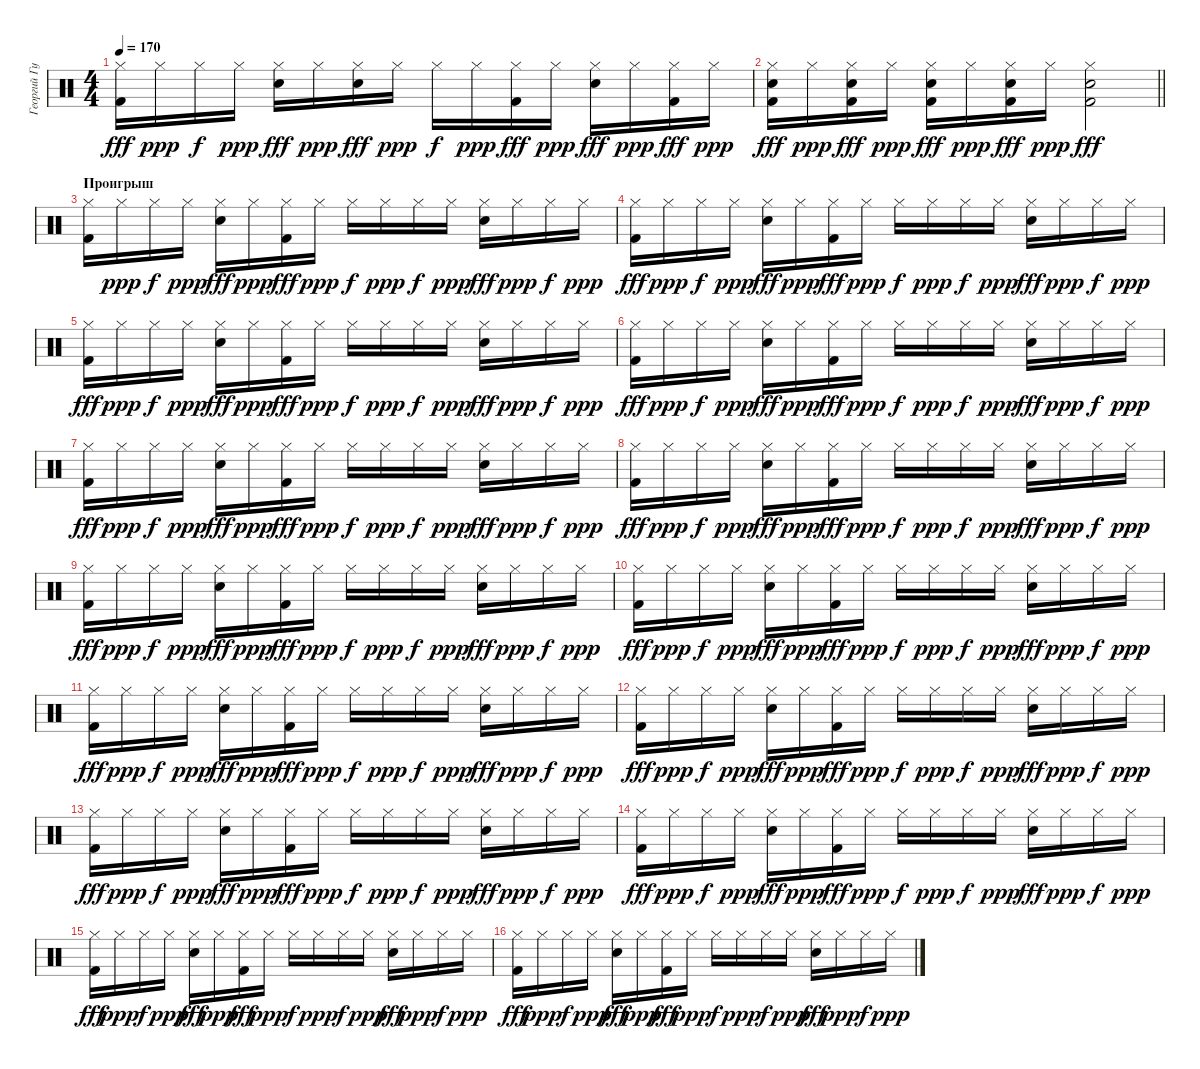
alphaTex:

\track ("Георгий Гурьянов" "Георгий Гу") {instrument percussion}
\staff {score}
\articulation defaults
\ts (4 4)
\tempo 170
\clef neutral
\ks c
("Hi-Hat (closed)" "Kick (hit) 2").16{dy fff} "Hi-Hat (closed)".16{dy ppp} "Hi-Hat (closed)".16{dy f} "Hi-Hat (closed)".16{dy ppp} ("Hi-Hat (closed)" "Electric Snare (hit)").16{dy fff} "Hi-Hat (closed)".16{dy ppp} ("Hi-Hat (closed)" "Electric Snare (hit)").16{dy fff} "Hi-Hat (closed)".16{dy ppp} "Hi-Hat (closed)".16{dy f} "Hi-Hat (closed)".16{dy ppp} ("Hi-Hat (closed)" "Kick (hit) 2").16{dy fff} "Hi-Hat (closed)".16{dy ppp} ("Hi-Hat (closed)" "Electric Snare (hit)").16{dy fff} "Hi-Hat (closed)".16{dy ppp} ("Hi-Hat (closed)" "Kick (hit) 2").16{dy fff} "Hi-Hat (closed)".16{dy ppp} |
\barLineRight lightlight
("Hi-Hat (closed)" "Electric Snare (hit)" "Kick (hit) 2").16{dy fff} "Hi-Hat (closed)".16{dy ppp} ("Hi-Hat (closed)" "Electric Snare (hit)" "Kick (hit) 2").16{dy fff} "Hi-Hat (closed)".16{dy ppp} ("Hi-Hat (closed)" "Kick (hit) 2" "Electric Snare (hit)").16{dy fff} "Hi-Hat (closed)".16{dy ppp} ("Hi-Hat (closed)" "Kick (hit) 2" "Electric Snare (hit)").16{dy fff} "Hi-Hat (closed)".16{dy ppp} ("Hi-Hat (closed)" "Electric Snare (hit)" "Kick (hit) 2").2{dy fff} |
\section ("" "Проигрыш")
("Hi-Hat (closed)" "Kick (hit) 2").16 "Hi-Hat (closed)".16{dy ppp} "Hi-Hat (closed)".16{dy f} "Hi-Hat (closed)".16{dy ppp} ("Hi-Hat (closed)" "Electric Snare (hit)").16{dy fff} "Hi-Hat (closed)".16{dy ppp} ("Hi-Hat (closed)" "Kick (hit) 2").16{dy fff} "Hi-Hat (closed)".16{dy ppp} "Hi-Hat (closed)".16{dy f} "Hi-Hat (closed)".16{dy ppp} "Hi-Hat (closed)".16{dy f} "Hi-Hat (closed)".16{dy ppp} ("Hi-Hat (closed)" "Electric Snare (hit)").16{dy fff} "Hi-Hat (closed)".16{dy ppp} "Hi-Hat (closed)".16{dy f} "Hi-Hat (closed)".16{dy ppp} |
("Hi-Hat (closed)" "Kick (hit) 2").16{dy fff} "Hi-Hat (closed)".16{dy ppp} "Hi-Hat (closed)".16{dy f} "Hi-Hat (closed)".16{dy ppp} ("Hi-Hat (closed)" "Electric Snare (hit)").16{dy fff} "Hi-Hat (closed)".16{dy ppp} ("Hi-Hat (closed)" "Kick (hit) 2").16{dy fff} "Hi-Hat (closed)".16{dy ppp} "Hi-Hat (closed)".16{dy f} "Hi-Hat (closed)".16{dy ppp} "Hi-Hat (closed)".16{dy f} "Hi-Hat (closed)".16{dy ppp} ("Hi-Hat (closed)" "Electric Snare (hit)").16{dy fff} "Hi-Hat (closed)".16{dy ppp} "Hi-Hat (closed)".16{dy f} "Hi-Hat (closed)".16{dy ppp} |
("Hi-Hat (closed)" "Kick (hit) 2").16{dy fff} "Hi-Hat (closed)".16{dy ppp} "Hi-Hat (closed)".16{dy f} "Hi-Hat (closed)".16{dy ppp} ("Hi-Hat (closed)" "Electric Snare (hit)").16{dy fff} "Hi-Hat (closed)".16{dy ppp} ("Hi-Hat (closed)" "Kick (hit) 2").16{dy fff} "Hi-Hat (closed)".16{dy ppp} "Hi-Hat (closed)".16{dy f} "Hi-Hat (closed)".16{dy ppp} "Hi-Hat (closed)".16{dy f} "Hi-Hat (closed)".16{dy ppp} ("Hi-Hat (closed)" "Electric Snare (hit)").16{dy fff} "Hi-Hat (closed)".16{dy ppp} "Hi-Hat (closed)".16{dy f} "Hi-Hat (closed)".16{dy ppp} |
("Hi-Hat (closed)" "Kick (hit) 2").16{dy fff} "Hi-Hat (closed)".16{dy ppp} "Hi-Hat (closed)".16{dy f} "Hi-Hat (closed)".16{dy ppp} ("Hi-Hat (closed)" "Electric Snare (hit)").16{dy fff} "Hi-Hat (closed)".16{dy ppp} ("Hi-Hat (closed)" "Kick (hit) 2").16{dy fff} "Hi-Hat (closed)".16{dy ppp} "Hi-Hat (closed)".16{dy f} "Hi-Hat (closed)".16{dy ppp} "Hi-Hat (closed)".16{dy f} "Hi-Hat (closed)".16{dy ppp} ("Hi-Hat (closed)" "Electric Snare (hit)").16{dy fff} "Hi-Hat (closed)".16{dy ppp} "Hi-Hat (closed)".16{dy f} "Hi-Hat (closed)".16{dy ppp} |
("Hi-Hat (closed)" "Kick (hit) 2").16{dy fff} "Hi-Hat (closed)".16{dy ppp} "Hi-Hat (closed)".16{dy f} "Hi-Hat (closed)".16{dy ppp} ("Hi-Hat (closed)" "Electric Snare (hit)").16{dy fff} "Hi-Hat (closed)".16{dy ppp} ("Hi-Hat (closed)" "Kick (hit) 2").16{dy fff} "Hi-Hat (closed)".16{dy ppp} "Hi-Hat (closed)".16{dy f} "Hi-Hat (closed)".16{dy ppp} "Hi-Hat (closed)".16{dy f} "Hi-Hat (closed)".16{dy ppp} ("Hi-Hat (closed)" "Electric Snare (hit)").16{dy fff} "Hi-Hat (closed)".16{dy ppp} "Hi-Hat (closed)".16{dy f} "Hi-Hat (closed)".16{dy ppp} |
("Hi-Hat (closed)" "Kick (hit) 2").16{dy fff} "Hi-Hat (closed)".16{dy ppp} "Hi-Hat (closed)".16{dy f} "Hi-Hat (closed)".16{dy ppp} ("Hi-Hat (closed)" "Electric Snare (hit)").16{dy fff} "Hi-Hat (closed)".16{dy ppp} ("Hi-Hat (closed)" "Kick (hit) 2").16{dy fff} "Hi-Hat (closed)".16{dy ppp} "Hi-Hat (closed)".16{dy f} "Hi-Hat (closed)".16{dy ppp} "Hi-Hat (closed)".16{dy f} "Hi-Hat (closed)".16{dy ppp} ("Hi-Hat (closed)" "Electric Snare (hit)").16{dy fff} "Hi-Hat (closed)".16{dy ppp} "Hi-Hat (closed)".16{dy f} "Hi-Hat (closed)".16{dy ppp} |
("Hi-Hat (closed)" "Kick (hit) 2").16{dy fff} "Hi-Hat (closed)".16{dy ppp} "Hi-Hat (closed)".16{dy f} "Hi-Hat (closed)".16{dy ppp} ("Hi-Hat (closed)" "Electric Snare (hit)").16{dy fff} "Hi-Hat (closed)".16{dy ppp} ("Hi-Hat (closed)" "Kick (hit) 2").16{dy fff} "Hi-Hat (closed)".16{dy ppp} "Hi-Hat (closed)".16{dy f} "Hi-Hat (closed)".16{dy ppp} "Hi-Hat (closed)".16{dy f} "Hi-Hat (closed)".16{dy ppp} ("Hi-Hat (closed)" "Electric Snare (hit)").16{dy fff} "Hi-Hat (closed)".16{dy ppp} "Hi-Hat (closed)".16{dy f} "Hi-Hat (closed)".16{dy ppp} |
("Hi-Hat (closed)" "Kick (hit) 2").16{dy fff} "Hi-Hat (closed)".16{dy ppp} "Hi-Hat (closed)".16{dy f} "Hi-Hat (closed)".16{dy ppp} ("Hi-Hat (closed)" "Electric Snare (hit)").16{dy fff} "Hi-Hat (closed)".16{dy ppp} ("Hi-Hat (closed)" "Kick (hit) 2").16{dy fff} "Hi-Hat (closed)".16{dy ppp} "Hi-Hat (closed)".16{dy f} "Hi-Hat (closed)".16{dy ppp} "Hi-Hat (closed)".16{dy f} "Hi-Hat (closed)".16{dy ppp} ("Hi-Hat (closed)" "Electric Snare (hit)").16{dy fff} "Hi-Hat (closed)".16{dy ppp} "Hi-Hat (closed)".16{dy f} "Hi-Hat (closed)".16{dy ppp} |
("Hi-Hat (closed)" "Kick (hit) 2").16{dy fff} "Hi-Hat (closed)".16{dy ppp} "Hi-Hat (closed)".16{dy f} "Hi-Hat (closed)".16{dy ppp} ("Hi-Hat (closed)" "Electric Snare (hit)").16{dy fff} "Hi-Hat (closed)".16{dy ppp} ("Hi-Hat (closed)" "Kick (hit) 2").16{dy fff} "Hi-Hat (closed)".16{dy ppp} "Hi-Hat (closed)".16{dy f} "Hi-Hat (closed)".16{dy ppp} "Hi-Hat (closed)".16{dy f} "Hi-Hat (closed)".16{dy ppp} ("Hi-Hat (closed)" "Electric Snare (hit)").16{dy fff} "Hi-Hat (closed)".16{dy ppp} "Hi-Hat (closed)".16{dy f} "Hi-Hat (closed)".16{dy ppp} |
("Hi-Hat (closed)" "Kick (hit) 2").16{dy fff} "Hi-Hat (closed)".16{dy ppp} "Hi-Hat (closed)".16{dy f} "Hi-Hat (closed)".16{dy ppp} ("Hi-Hat (closed)" "Electric Snare (hit)").16{dy fff} "Hi-Hat (closed)".16{dy ppp} ("Hi-Hat (closed)" "Kick (hit) 2").16{dy fff} "Hi-Hat (closed)".16{dy ppp} "Hi-Hat (closed)".16{dy f} "Hi-Hat (closed)".16{dy ppp} "Hi-Hat (closed)".16{dy f} "Hi-Hat (closed)".16{dy ppp} ("Hi-Hat (closed)" "Electric Snare (hit)").16{dy fff} "Hi-Hat (closed)".16{dy ppp} "Hi-Hat (closed)".16{dy f} "Hi-Hat (closed)".16{dy ppp} |
("Hi-Hat (closed)" "Kick (hit) 2").16{dy fff} "Hi-Hat (closed)".16{dy ppp} "Hi-Hat (closed)".16{dy f} "Hi-Hat (closed)".16{dy ppp} ("Hi-Hat (closed)" "Electric Snare (hit)").16{dy fff} "Hi-Hat (closed)".16{dy ppp} ("Hi-Hat (closed)" "Kick (hit) 2").16{dy fff} "Hi-Hat (closed)".16{dy ppp} "Hi-Hat (closed)".16{dy f} "Hi-Hat (closed)".16{dy ppp} "Hi-Hat (closed)".16{dy f} "Hi-Hat (closed)".16{dy ppp} ("Hi-Hat (closed)" "Electric Snare (hit)").16{dy fff} "Hi-Hat (closed)".16{dy ppp} "Hi-Hat (closed)".16{dy f} "Hi-Hat (closed)".16{dy ppp} |
("Hi-Hat (closed)" "Kick (hit) 2").16{dy fff} "Hi-Hat (closed)".16{dy ppp} "Hi-Hat (closed)".16{dy f} "Hi-Hat (closed)".16{dy ppp} ("Hi-Hat (closed)" "Electric Snare (hit)").16{dy fff} "Hi-Hat (closed)".16{dy ppp} ("Hi-Hat (closed)" "Kick (hit) 2").16{dy fff} "Hi-Hat (closed)".16{dy ppp} "Hi-Hat (closed)".16{dy f} "Hi-Hat (closed)".16{dy ppp} "Hi-Hat (closed)".16{dy f} "Hi-Hat (closed)".16{dy ppp} ("Hi-Hat (closed)" "Electric Snare (hit)").16{dy fff} "Hi-Hat (closed)".16{dy ppp} "Hi-Hat (closed)".16{dy f} "Hi-Hat (closed)".16{dy ppp} |
("Hi-Hat (closed)" "Kick (hit) 2").16{dy fff} "Hi-Hat (closed)".16{dy ppp} "Hi-Hat (closed)".16{dy f} "Hi-Hat (closed)".16{dy ppp} ("Hi-Hat (closed)" "Electric Snare (hit)").16{dy fff} "Hi-Hat (closed)".16{dy ppp} ("Hi-Hat (closed)" "Kick (hit) 2").16{dy fff} "Hi-Hat (closed)".16{dy ppp} "Hi-Hat (closed)".16{dy f} "Hi-Hat (closed)".16{dy ppp} "Hi-Hat (closed)".16{dy f} "Hi-Hat (closed)".16{dy ppp} ("Hi-Hat (closed)" "Electric Snare (hit)").16{dy fff} "Hi-Hat (closed)".16{dy ppp} "Hi-Hat (closed)".16{dy f} "Hi-Hat (closed)".16{dy ppp} |
("Hi-Hat (closed)" "Kick (hit) 2").16{dy fff} "Hi-Hat (closed)".16{dy ppp} "Hi-Hat (closed)".16{dy f} "Hi-Hat (closed)".16{dy ppp} ("Hi-Hat (closed)" "Electric Snare (hit)").16{dy fff} "Hi-Hat (closed)".16{dy ppp} ("Hi-Hat (closed)" "Kick (hit) 2").16{dy fff} "Hi-Hat (closed)".16{dy ppp} "Hi-Hat (closed)".16{dy f} "Hi-Hat (closed)".16{dy ppp} "Hi-Hat (closed)".16{dy f} "Hi-Hat (closed)".16{dy ppp} ("Hi-Hat (closed)" "Electric Snare (hit)").16{dy fff} "Hi-Hat (closed)".16{dy ppp} "Hi-Hat (closed)".16{dy f} "Hi-Hat (closed)".16{dy ppp}
